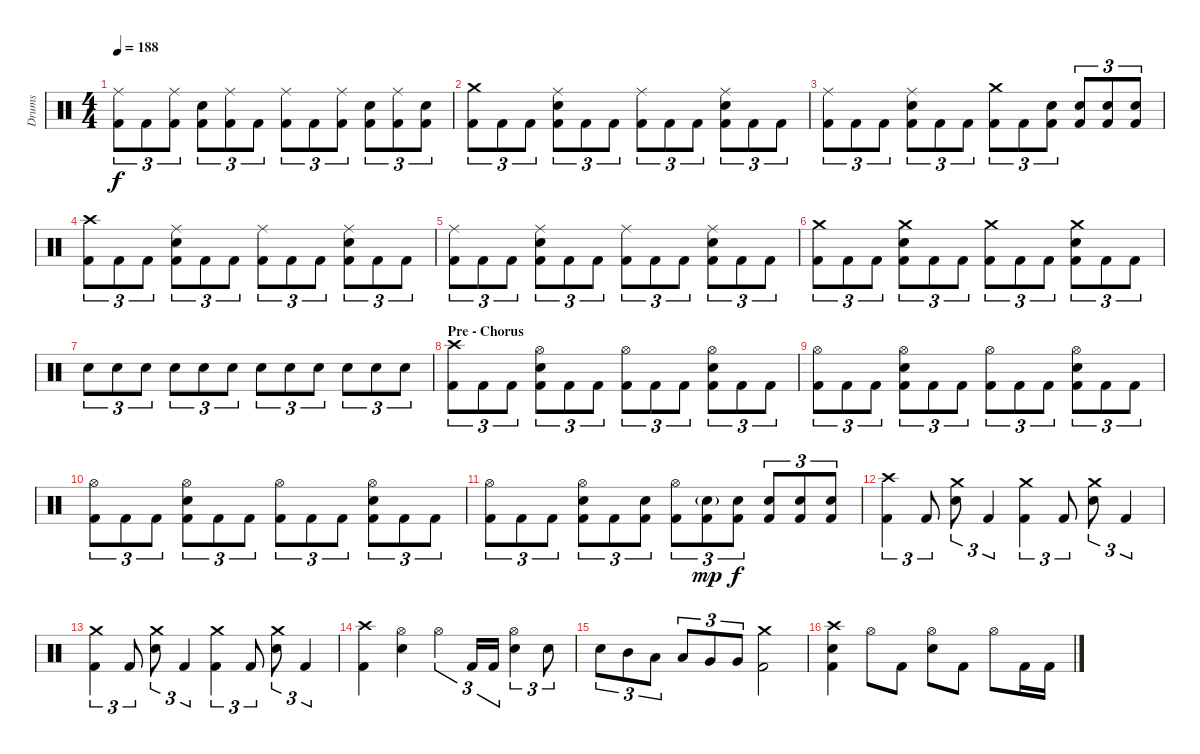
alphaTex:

\track ("Drums" "Drums") {instrument percussion}
\staff {score}
\articulation defaults
\ts (4 4)
\tempo 188
\clef neutral
\ks c
("Ride (middle)" "Kick (hit) 2").8{tu (3 2) dy f} "Kick (hit) 2".8{tu (3 2)} ("Ride (middle)" "Kick (hit) 2").8{tu (3 2)} ("Electric Snare (hit)" "Kick (hit) 2").8{tu (3 2)} ("Ride (middle)" "Kick (hit) 2").8{tu (3 2)} "Kick (hit) 2".8{tu (3 2)} ("Ride (middle)" "Kick (hit) 2").8{tu (3 2)} "Kick (hit) 2".8{tu (3 2)} ("Ride (middle)" "Kick (hit) 2").8{tu (3 2)} ("Electric Snare (hit)" "Kick (hit) 2").8{tu (3 2)} ("Ride (middle)" "Kick (hit) 2").8{tu (3 2)} ("Electric Snare (hit)" "Kick (hit) 2").8{tu (3 2)} |
("Crash medium (hit)" "Kick (hit) 2").8{tu (3 2)} "Kick (hit) 2".8{tu (3 2)} "Kick (hit) 2".8{tu (3 2)} ("Ride (middle)" "Electric Snare (hit)" "Kick (hit) 2").8{tu (3 2)} "Kick (hit) 2".8{tu (3 2)} "Kick (hit) 2".8{tu (3 2)} ("Ride (middle)" "Kick (hit) 2").8{tu (3 2)} "Kick (hit) 2".8{tu (3 2)} "Kick (hit) 2".8{tu (3 2)} ("Ride (middle)" "Electric Snare (hit)" "Kick (hit) 2").8{tu (3 2)} "Kick (hit) 2".8{tu (3 2)} "Kick (hit) 2".8{tu (3 2)} |
("Ride (middle)" "Kick (hit) 2").8{tu (3 2)} "Kick (hit) 2".8{tu (3 2)} "Kick (hit) 2".8{tu (3 2)} ("Ride (middle)" "Electric Snare (hit)" "Kick (hit) 2").8{tu (3 2)} "Kick (hit) 2".8{tu (3 2)} "Kick (hit) 2".8{tu (3 2)} ("Crash medium (hit)" "Kick (hit) 2").8{tu (3 2)} "Kick (hit) 2".8{tu (3 2)} ("Electric Snare (hit)" "Kick (hit) 2").8{tu (3 2)} ("Electric Snare (hit)" "Kick (hit) 2").8{tu (3 2)} ("Electric Snare (hit)" "Kick (hit) 2").8{tu (3 2)} ("Electric Snare (hit)" "Kick (hit) 2").8{tu (3 2)} |
("Crash high (hit)" "Kick (hit) 2").8{tu (3 2)} "Kick (hit) 2".8{tu (3 2)} "Kick (hit) 2".8{tu (3 2)} ("Ride (middle)" "Electric Snare (hit)" "Kick (hit) 2").8{tu (3 2)} "Kick (hit) 2".8{tu (3 2)} "Kick (hit) 2".8{tu (3 2)} ("Ride (middle)" "Kick (hit) 2").8{tu (3 2)} "Kick (hit) 2".8{tu (3 2)} "Kick (hit) 2".8{tu (3 2)} ("Ride (middle)" "Electric Snare (hit)" "Kick (hit) 2").8{tu (3 2)} "Kick (hit) 2".8{tu (3 2)} "Kick (hit) 2".8{tu (3 2)} |
("Ride (middle)" "Kick (hit) 2").8{tu (3 2)} "Kick (hit) 2".8{tu (3 2)} "Kick (hit) 2".8{tu (3 2)} ("Ride (middle)" "Electric Snare (hit)" "Kick (hit) 2").8{tu (3 2)} "Kick (hit) 2".8{tu (3 2)} "Kick (hit) 2".8{tu (3 2)} ("Ride (middle)" "Kick (hit) 2").8{tu (3 2)} "Kick (hit) 2".8{tu (3 2)} "Kick (hit) 2".8{tu (3 2)} ("Ride (middle)" "Electric Snare (hit)" "Kick (hit) 2").8{tu (3 2)} "Kick (hit) 2".8{tu (3 2)} "Kick (hit) 2".8{tu (3 2)} |
("Crash medium (hit)" "Kick (hit) 2").8{tu (3 2)} "Kick (hit) 2".8{tu (3 2)} "Kick (hit) 2".8{tu (3 2)} ("Crash medium (hit)" "Electric Snare (hit)" "Kick (hit) 2").8{tu (3 2)} "Kick (hit) 2".8{tu (3 2)} "Kick (hit) 2".8{tu (3 2)} ("Crash medium (hit)" "Kick (hit) 2").8{tu (3 2)} "Kick (hit) 2".8{tu (3 2)} "Kick (hit) 2".8{tu (3 2)} ("Crash medium (hit)" "Electric Snare (hit)" "Kick (hit) 2").8{tu (3 2)} "Kick (hit) 2".8{tu (3 2)} "Kick (hit) 2".8{tu (3 2)} |
"Electric Snare (hit)".8{tu (3 2)} "Electric Snare (hit)".8{tu (3 2)} "Electric Snare (hit)".8{tu (3 2)} "Electric Snare (hit)".8{tu (3 2)} "Electric Snare (hit)".8{tu (3 2)} "Electric Snare (hit)".8{tu (3 2)} "Electric Snare (hit)".8{tu (3 2)} "Electric Snare (hit)".8{tu (3 2)} "Electric Snare (hit)".8{tu (3 2)} "Electric Snare (hit)".8{tu (3 2)} "Electric Snare (hit)".8{tu (3 2)} "Electric Snare (hit)".8{tu (3 2)} |
\section ("" "Pre - Chorus")
("Crash high (hit)" "Kick (hit) 2").8{tu (3 2)} "Kick (hit) 2".8{tu (3 2)} "Kick (hit) 2".8{tu (3 2)} ("Hi-Hat (open)" "Electric Snare (hit)" "Kick (hit) 2").8{tu (3 2)} "Kick (hit) 2".8{tu (3 2)} "Kick (hit) 2".8{tu (3 2)} ("Hi-Hat (open)" "Kick (hit) 2").8{tu (3 2)} "Kick (hit) 2".8{tu (3 2)} "Kick (hit) 2".8{tu (3 2)} ("Hi-Hat (open)" "Electric Snare (hit)" "Kick (hit) 2").8{tu (3 2)} "Kick (hit) 2".8{tu (3 2)} "Kick (hit) 2".8{tu (3 2)} |
("Hi-Hat (open)" "Kick (hit) 2").8{tu (3 2)} "Kick (hit) 2".8{tu (3 2)} "Kick (hit) 2".8{tu (3 2)} ("Hi-Hat (open)" "Electric Snare (hit)" "Kick (hit) 2").8{tu (3 2)} "Kick (hit) 2".8{tu (3 2)} "Kick (hit) 2".8{tu (3 2)} ("Hi-Hat (open)" "Kick (hit) 2").8{tu (3 2)} "Kick (hit) 2".8{tu (3 2)} "Kick (hit) 2".8{tu (3 2)} ("Hi-Hat (open)" "Electric Snare (hit)" "Kick (hit) 2").8{tu (3 2)} "Kick (hit) 2".8{tu (3 2)} "Kick (hit) 2".8{tu (3 2)} |
("Hi-Hat (open)" "Kick (hit) 2").8{tu (3 2)} "Kick (hit) 2".8{tu (3 2)} "Kick (hit) 2".8{tu (3 2)} ("Hi-Hat (open)" "Electric Snare (hit)" "Kick (hit) 2").8{tu (3 2)} "Kick (hit) 2".8{tu (3 2)} "Kick (hit) 2".8{tu (3 2)} ("Hi-Hat (open)" "Kick (hit) 2").8{tu (3 2)} "Kick (hit) 2".8{tu (3 2)} "Kick (hit) 2".8{tu (3 2)} ("Hi-Hat (open)" "Electric Snare (hit)" "Kick (hit) 2").8{tu (3 2)} "Kick (hit) 2".8{tu (3 2)} "Kick (hit) 2".8{tu (3 2)} |
("Hi-Hat (open)" "Kick (hit) 2").8{tu (3 2)} "Kick (hit) 2".8{tu (3 2)} "Kick (hit) 2".8{tu (3 2)} ("Hi-Hat (open)" "Electric Snare (hit)" "Kick (hit) 2").8{tu (3 2)} "Kick (hit) 2".8{tu (3 2)} ("Electric Snare (hit)" "Kick (hit) 2").8{tu (3 2)} ("Hi-Hat (open)" "Kick (hit) 2").8{tu (3 2)} ("Electric Snare (hit)"{g} "Kick (hit) 2").8{tu (3 2) dy mp} ("Electric Snare (hit)" "Kick (hit) 2").8{tu (3 2) dy f} ("Electric Snare (hit)" "Kick (hit) 2").8{tu (3 2)} ("Electric Snare (hit)" "Kick (hit) 2").8{tu (3 2)} ("Electric Snare (hit)" "Kick (hit) 2").8{tu (3 2)} |
("Crash high (hit)" "Kick (hit) 2").4{tu (3 2)} "Kick (hit) 2".8{tu (3 2)} ("Crash medium (hit)" "Electric Snare (hit)").8{tu (3 2)} "Kick (hit) 2".4{tu (3 2)} ("Crash medium (hit)" "Kick (hit) 2").4{tu (3 2)} "Kick (hit) 2".8{tu (3 2)} ("Crash medium (hit)" "Electric Snare (hit)").8{tu (3 2)} "Kick (hit) 2".4{tu (3 2)} |
("Crash medium (hit)" "Kick (hit) 2").4{tu (3 2)} "Kick (hit) 2".8{tu (3 2)} ("Crash medium (hit)" "Electric Snare (hit)").8{tu (3 2)} "Kick (hit) 2".4{tu (3 2)} ("Crash medium (hit)" "Kick (hit) 2").4{tu (3 2)} "Kick (hit) 2".8{tu (3 2)} ("Crash medium (hit)" "Electric Snare (hit)").8{tu (3 2)} "Kick (hit) 2".4{tu (3 2)} |
("Crash high (hit)" "Kick (hit) 2").4 ("Hi-Hat (open)" "Electric Snare (hit)").4 "Hi-Hat (open)".4{tu (3 2)} "Kick (hit) 2".16{tu (3 2)} "Kick (hit) 2".16{tu (3 2)} ("Hi-Hat (open)" "Electric Snare (hit)").4{tu (3 2)} "Electric Snare (hit)".8{tu (3 2)} |
"Electric Snare (hit)".8{tu (3 2)} "Mid Tom (hit)".8{tu (3 2)} "Low Tom (hit)".8{tu (3 2)} "Low Tom (hit)".8{tu (3 2)} "Very Low Tom (hit)".8{tu (3 2)} "Very Low Tom (hit)".8{tu (3 2)} ("Crash medium (hit)" "Kick (hit) 2").2 |
("Crash high (hit)" "Electric Snare (hit)" "Kick (hit) 2").4 "Hi-Hat (open)".8 "Kick (hit) 2".8 ("Hi-Hat (open)" "Electric Snare (hit)").8 "Kick (hit) 2".8 "Hi-Hat (open)".8 "Kick (hit) 2".16 "Kick (hit) 2".16
